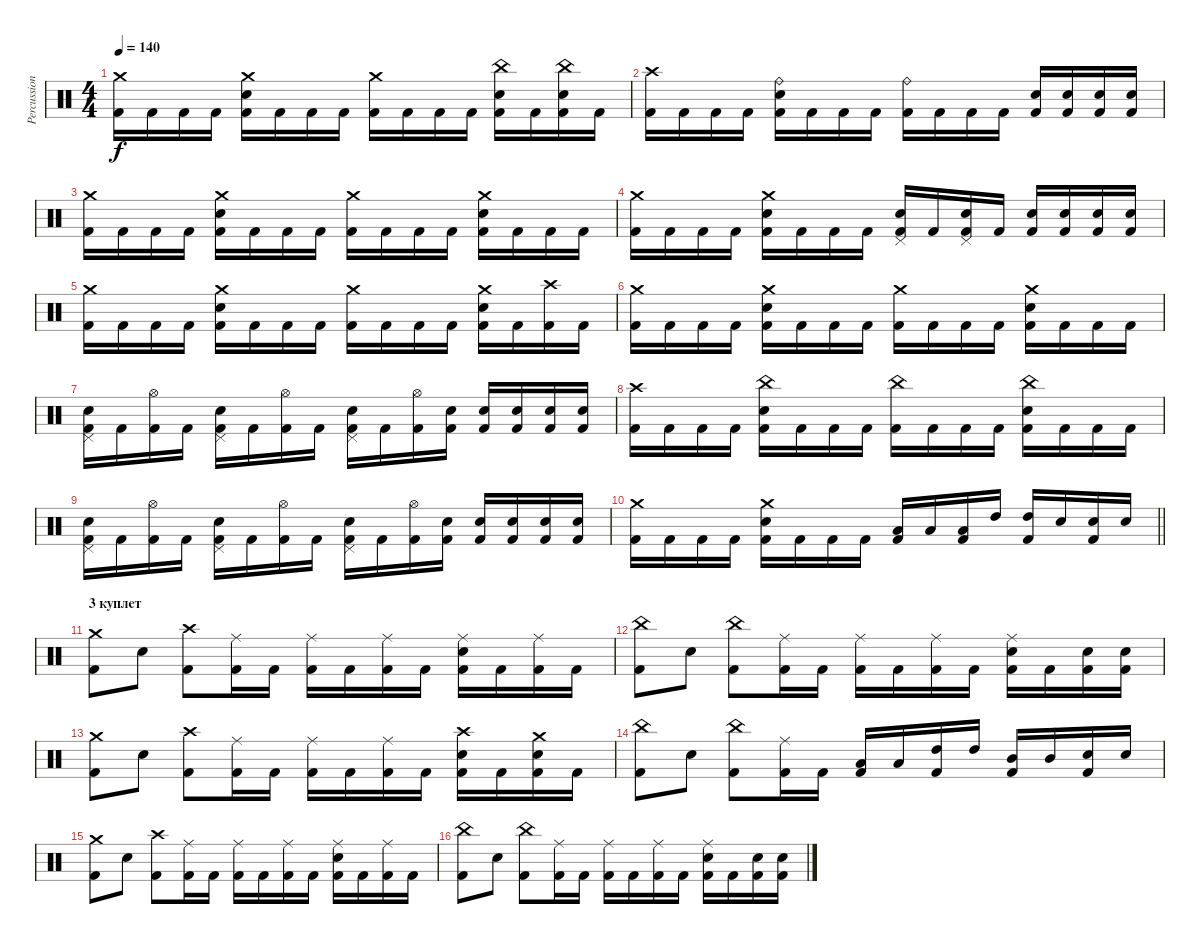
\track ("Percussion" "Percussion") {instrument percussion}
\staff {score}
\articulation defaults
\ts (4 4)
\tempo 140
\clef neutral
\ks c
("Crash medium (hit)" "Kick (hit) 2").16{dy f} "Kick (hit) 2".16 "Kick (hit) 2".16 "Kick (hit) 2".16 ("Crash medium (hit)" "Snare (hit) 2" "Kick (hit) 2").16 "Kick (hit) 2".16 "Kick (hit) 2".16 "Kick (hit) 2".16 ("Crash medium (hit)" "Kick (hit) 2").16 "Kick (hit) 2".16 "Kick (hit) 2".16 "Kick (hit) 2".16 ("China (hit)" "Snare (hit) 2" "Kick (hit) 2").16 "Kick (hit) 2".16 ("China (hit)" "Snare (hit) 2" "Kick (hit) 2").16 "Kick (hit) 2".16 |
("Crash high (hit)" "Kick (hit) 2").16 "Kick (hit) 2".16 "Kick (hit) 2".16 "Kick (hit) 2".16 ("Ride (bell)" "Snare (hit) 2" "Kick (hit) 2").16 "Kick (hit) 2".16 "Kick (hit) 2".16 "Kick (hit) 2".16 ("Ride (bell)" "Kick (hit) 2").16 "Kick (hit) 2".16 "Kick (hit) 2".16 "Kick (hit) 2".16 ("Snare (hit) 2" "Kick (hit) 2").16 ("Snare (hit) 2" "Kick (hit) 2").16 ("Snare (hit) 2" "Kick (hit) 2").16 ("Snare (hit) 2" "Kick (hit) 2").16 |
("Crash medium (hit)" "Kick (hit) 2").16 "Kick (hit) 2".16 "Kick (hit) 2".16 "Kick (hit) 2".16 ("Crash medium (hit)" "Snare (hit) 2" "Kick (hit) 2").16 "Kick (hit) 2".16 "Kick (hit) 2".16 "Kick (hit) 2".16 ("Crash medium (hit)" "Kick (hit) 2").16 "Kick (hit) 2".16 "Kick (hit) 2".16 "Kick (hit) 2".16 ("Crash medium (hit)" "Snare (hit) 2" "Kick (hit) 2").16 "Kick (hit) 2".16 "Kick (hit) 2".16 "Kick (hit) 2".16 |
("Crash medium (hit)" "Kick (hit) 2").16 "Kick (hit) 2".16 "Kick (hit) 2".16 "Kick (hit) 2".16 ("Crash medium (hit)" "Snare (hit) 2" "Kick (hit) 2").16 "Kick (hit) 2".16 "Kick (hit) 2".16 "Kick (hit) 2".16 ("Pedal Hi-Hat (hit)" "Snare (hit) 2" "Kick (hit) 2").16 "Kick (hit) 2".16 ("Pedal Hi-Hat (hit)" "Snare (hit) 2" "Kick (hit) 2").16 "Kick (hit) 2".16 ("Snare (hit) 2" "Kick (hit) 2").16 ("Snare (hit) 2" "Kick (hit) 2").16 ("Snare (hit) 2" "Kick (hit) 2").16 ("Snare (hit) 2" "Kick (hit) 2").16 |
("Crash medium (hit)" "Kick (hit) 2").16 "Kick (hit) 2".16 "Kick (hit) 2".16 "Kick (hit) 2".16 ("Crash medium (hit)" "Snare (hit) 2" "Kick (hit) 2").16 "Kick (hit) 2".16 "Kick (hit) 2".16 "Kick (hit) 2".16 ("Crash medium (hit)" "Kick (hit) 2").16 "Kick (hit) 2".16 "Kick (hit) 2".16 "Kick (hit) 2".16 ("Crash medium (hit)" "Snare (hit) 2" "Kick (hit) 2").16 "Kick (hit) 2".16 ("Crash high (hit)" "Kick (hit) 2").16 "Kick (hit) 2".16 |
("Crash medium (hit)" "Kick (hit) 2").16 "Kick (hit) 2".16 "Kick (hit) 2".16 "Kick (hit) 2".16 ("Crash medium (hit)" "Snare (hit) 2" "Kick (hit) 2").16 "Kick (hit) 2".16 "Kick (hit) 2".16 "Kick (hit) 2".16 ("Crash medium (hit)" "Kick (hit) 2").16 "Kick (hit) 2".16 "Kick (hit) 2".16 "Kick (hit) 2".16 ("Crash medium (hit)" "Snare (hit) 2" "Kick (hit) 2").16 "Kick (hit) 2".16 "Kick (hit) 2".16 "Kick (hit) 2".16 |
("Pedal Hi-Hat (hit)" "Snare (hit) 2" "Kick (hit) 2").16 "Kick (hit) 2".16 ("Hi-Hat (open)" "Kick (hit) 2").16 "Kick (hit) 2".16 ("Pedal Hi-Hat (hit)" "Snare (hit) 2" "Kick (hit) 2").16 "Kick (hit) 2".16 ("Hi-Hat (open)" "Kick (hit) 2").16 "Kick (hit) 2".16 ("Pedal Hi-Hat (hit)" "Snare (hit) 2" "Kick (hit) 2").16 "Kick (hit) 2".16 ("Hi-Hat (open)" "Kick (hit) 2").16 ("Snare (hit) 2" "Kick (hit) 2").16 ("Snare (hit) 2" "Kick (hit) 2").16 ("Snare (hit) 2" "Kick (hit) 2").16 ("Snare (hit) 2" "Kick (hit) 2").16 ("Snare (hit) 2" "Kick (hit) 2").16 |
("Crash high (hit)" "Kick (hit) 2").16 "Kick (hit) 2".16 "Kick (hit) 2".16 "Kick (hit) 2".16 ("China (hit)" "Snare (hit) 2" "Kick (hit) 2").16 "Kick (hit) 2".16 "Kick (hit) 2".16 "Kick (hit) 2".16 ("China (hit)" "Kick (hit) 2").16 "Kick (hit) 2".16 "Kick (hit) 2".16 "Kick (hit) 2".16 ("China (hit)" "Snare (hit) 2" "Kick (hit) 2").16 "Kick (hit) 2".16 "Kick (hit) 2".16 "Kick (hit) 2".16 |
("Pedal Hi-Hat (hit)" "Snare (hit) 2" "Kick (hit) 2").16 "Kick (hit) 2".16 ("Hi-Hat (open)" "Kick (hit) 2").16 "Kick (hit) 2".16 ("Pedal Hi-Hat (hit)" "Snare (hit) 2" "Kick (hit) 2").16 "Kick (hit) 2".16 ("Hi-Hat (open)" "Kick (hit) 2").16 "Kick (hit) 2".16 ("Pedal Hi-Hat (hit)" "Snare (hit) 2" "Kick (hit) 2").16 "Kick (hit) 2".16 ("Hi-Hat (open)" "Kick (hit) 2").16 ("Snare (hit) 2" "Kick (hit) 2").16 ("Snare (hit) 2" "Kick (hit) 2").16 ("Snare (hit) 2" "Kick (hit) 2").16 ("Snare (hit) 2" "Kick (hit) 2").16 ("Snare (hit) 2" "Kick (hit) 2").16 |
\barLineRight lightlight
("Crash medium (hit)" "Kick (hit) 2").16 "Kick (hit) 2".16 "Kick (hit) 2".16 "Kick (hit) 2".16 ("Crash medium (hit)" "Snare (hit) 2" "Kick (hit) 2").16 "Kick (hit) 2".16 "Kick (hit) 2".16 "Kick (hit) 2".16 ("Low Tom (hit)" "Kick (hit) 2").16 "Low Tom (hit)".16 ("Low Tom (hit)" "Kick (hit) 2").16 "High Tom (hit)".16 ("High Tom (hit)" "Kick (hit) 2").16 "Snare (hit) 2".16 ("Snare (hit) 2" "Kick (hit) 2").16 "Snare (hit) 2".16 |
\section ("" "3 куплет")
("Crash medium (hit)" "Kick (hit) 2").8 "Snare (hit) 2".8 ("Crash high (hit)" "Kick (hit) 2").8 ("Ride (middle)" "Kick (hit) 2").16 "Kick (hit) 2".16 ("Ride (middle)" "Kick (hit) 2").16 "Kick (hit) 2".16 ("Ride (middle)" "Kick (hit) 2").16 "Kick (hit) 2".16 ("Ride (middle)" "Snare (hit) 2" "Kick (hit) 2").16 "Kick (hit) 2".16 ("Ride (middle)" "Kick (hit) 2").16 "Kick (hit) 2".16 |
("China (hit)" "Kick (hit) 2").8 "Snare (hit) 2".8 ("China (hit)" "Kick (hit) 2").8 ("Ride (middle)" "Kick (hit) 2").16 "Kick (hit) 2".16 ("Ride (middle)" "Kick (hit) 2").16 "Kick (hit) 2".16 ("Ride (middle)" "Kick (hit) 2").16 "Kick (hit) 2".16 ("Ride (middle)" "Snare (hit) 2" "Kick (hit) 2").16 "Kick (hit) 2".16 ("Snare (hit) 2" "Kick (hit) 2").16 ("Snare (hit) 2" "Kick (hit) 2").16 |
("Crash medium (hit)" "Kick (hit) 2").8 "Snare (hit) 2".8 ("Crash high (hit)" "Kick (hit) 2").8 ("Ride (middle)" "Kick (hit) 2").16 "Kick (hit) 2".16 ("Ride (middle)" "Kick (hit) 2").16 "Kick (hit) 2".16 ("Ride (middle)" "Kick (hit) 2").16 "Kick (hit) 2".16 ("Snare (hit) 2" "Crash high (hit)" "Kick (hit) 2").16 "Kick (hit) 2".16 ("Snare (hit) 2" "Crash medium (hit)" "Kick (hit) 2").16 "Kick (hit) 2".16 |
("China (hit)" "Kick (hit) 2").8 "Snare (hit) 2".8 ("China (hit)" "Kick (hit) 2").8 ("Ride (middle)" "Kick (hit) 2").16 "Kick (hit) 2".16 ("Low Tom (hit)" "Kick (hit) 2").16 "Low Tom (hit)".16 ("High Tom (hit)" "Kick (hit) 2").16 "High Tom (hit)".16 ("Mid Tom (hit)" "Kick (hit) 2").16 "Mid Tom (hit)".16 ("Snare (hit) 2" "Kick (hit) 2").16 "Snare (hit) 2".16 |
("Crash medium (hit)" "Kick (hit) 2").8 "Snare (hit) 2".8 ("Crash high (hit)" "Kick (hit) 2").8 ("Ride (middle)" "Kick (hit) 2").16 "Kick (hit) 2".16 ("Ride (middle)" "Kick (hit) 2").16 "Kick (hit) 2".16 ("Ride (middle)" "Kick (hit) 2").16 "Kick (hit) 2".16 ("Ride (middle)" "Snare (hit) 2" "Kick (hit) 2").16 "Kick (hit) 2".16 ("Ride (middle)" "Kick (hit) 2").16 "Kick (hit) 2".16 |
("China (hit)" "Kick (hit) 2").8 "Snare (hit) 2".8 ("China (hit)" "Kick (hit) 2").8 ("Ride (middle)" "Kick (hit) 2").16 "Kick (hit) 2".16 ("Ride (middle)" "Kick (hit) 2").16 "Kick (hit) 2".16 ("Ride (middle)" "Kick (hit) 2").16 "Kick (hit) 2".16 ("Ride (middle)" "Snare (hit) 2" "Kick (hit) 2").16 "Kick (hit) 2".16 ("Snare (hit) 2" "Kick (hit) 2").16 ("Snare (hit) 2" "Kick (hit) 2").16
